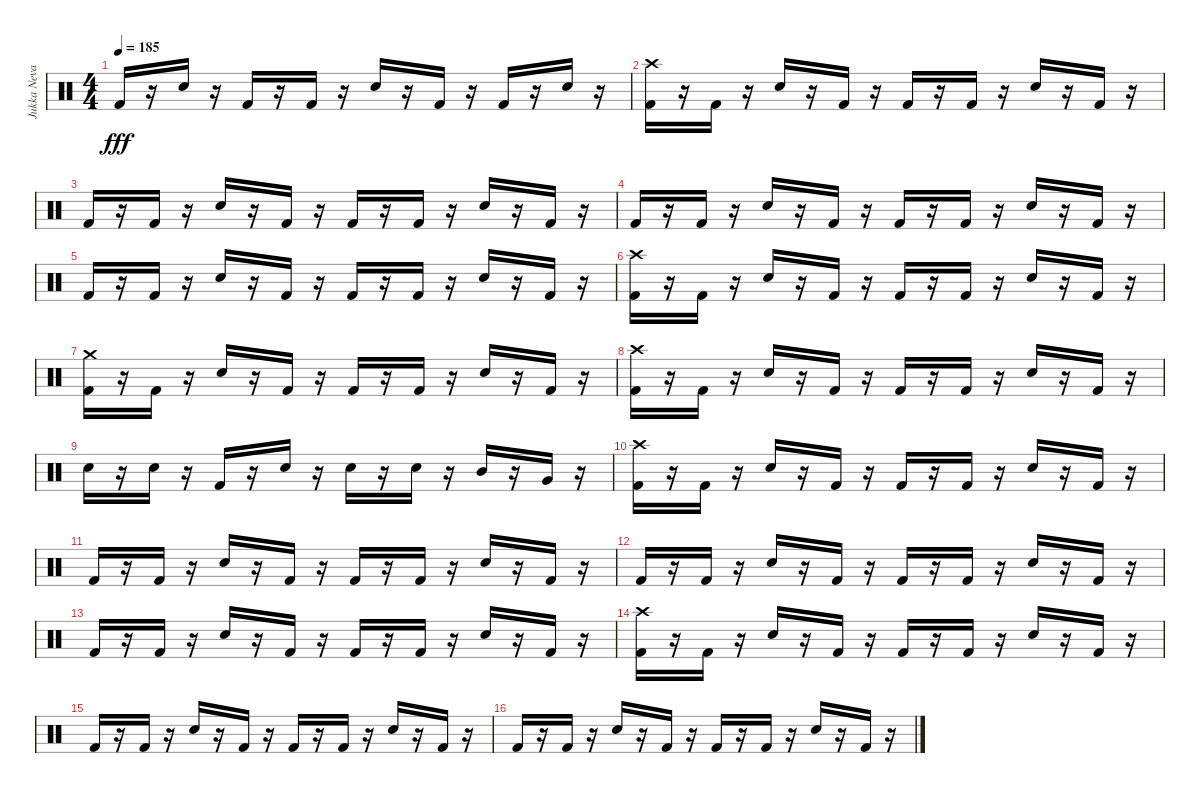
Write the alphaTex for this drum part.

\track ("Jukka Nevalinen" "Jukka Neva") {instrument percussion}
\staff {score}
\articulation defaults
\ts (4 4)
\tempo 185
\clef neutral
\ks c "Kick (hit) 2".16{dy fff}
r.16 "Snare (hit) 2".16{volume 9} r.16 "Kick (hit) 2".16 r.16 "Kick (hit) 2".16{volume 9} r.16 "Snare (hit) 2".16 r.16 "Kick (hit) 2".16{volume 8} r.16 "Kick (hit) 2".16 r.16 "Snare (hit) 2".16{volume 8} r.16 |
("Kick (hit) 2" "Crash high (hit)").16 r.16 "Kick (hit) 2".16{volume 8} r.16 "Snare (hit) 2".16 r.16 "Kick (hit) 2".16{volume 8} r.16 "Kick (hit) 2".16{volume 8} r.16 "Kick (hit) 2".16 r.16 "Snare (hit) 2".16{volume 8} r.16 "Kick (hit) 2".16 r.16 |
"Kick (hit) 2".16{volume 8} r.16 "Kick (hit) 2".16 r.16 "Snare (hit) 2".16{volume 8} r.16 "Kick (hit) 2".16 r.16 "Kick (hit) 2".16{volume 8} r.16 "Kick (hit) 2".16 r.16 "Snare (hit) 2".16{volume 7} r.16 "Kick (hit) 2".16 r.16 |
"Kick (hit) 2".16{volume 7} r.16 "Kick (hit) 2".16 r.16 "Snare (hit) 2".16{volume 7} r.16 "Kick (hit) 2".16 r.16 "Kick (hit) 2".16{volume 7} r.16 "Kick (hit) 2".16 r.16 "Snare (hit) 2".16{volume 7} r.16 "Kick (hit) 2".16 r.16 |
"Kick (hit) 2".16{volume 7} r.16 "Kick (hit) 2".16 r.16 "Snare (hit) 2".16{volume 7} r.16 "Kick (hit) 2".16 r.16 "Kick (hit) 2".16{volume 6} r.16 "Kick (hit) 2".16 r.16 "Snare (hit) 2".16{volume 6} r.16 "Kick (hit) 2".16 r.16 |
("Kick (hit) 2" "Crash high (hit)").16{volume 6} r.16 "Kick (hit) 2".16{volume 6} r.16 "Snare (hit) 2".16 r.16 "Kick (hit) 2".16{volume 6} r.16 "Kick (hit) 2".16 r.16 "Kick (hit) 2".16{volume 6} r.16 "Snare (hit) 2".16 r.16 "Kick (hit) 2".16{volume 6} r.16 |
("Kick (hit) 2" "Crash medium (hit)").16 r.16 "Kick (hit) 2".16{volume 6} r.16 "Snare (hit) 2".16 r.16 "Kick (hit) 2".16{volume 6} r.16 "Kick (hit) 2".16 r.16 "Kick (hit) 2".16{volume 5} r.16 "Snare (hit) 2".16 r.16 "Kick (hit) 2".16{volume 5} r.16 |
("Kick (hit) 2" "Crash high (hit)").16 r.16 "Kick (hit) 2".16{volume 5} r.16 "Snare (hit) 2".16 r.16 "Kick (hit) 2".16{volume 5} r.16 "Kick (hit) 2".16 r.16 "Kick (hit) 2".16{volume 5} r.16 "Snare (hit) 2".16 r.16 "Kick (hit) 2".16{volume 5} r.16 |
"Snare (hit) 2".16 r.16 "Snare (hit) 2".16{volume 5} r.16 "Kick (hit) 2".16 r.16 "Snare (hit) 2".16{volume 4} r.16 "Snare (hit) 2".16{volume 4} r.16 "Snare (hit) 2".16 r.16 "Mid Tom (hit)".16{volume 4} r.16 "Very Low Tom (hit)".16 r.16 |
("Kick (hit) 2" "Crash high (hit)").16{volume 4} r.16 "Kick (hit) 2".16 r.16 "Snare (hit) 2".16{volume 4} r.16 "Kick (hit) 2".16 r.16 "Kick (hit) 2".16{volume 4} r.16 "Kick (hit) 2".16 r.16 "Snare (hit) 2".16{volume 4} r.16 "Kick (hit) 2".16 r.16 |
"Kick (hit) 2".16{volume 4} r.16 "Kick (hit) 2".16 r.16 "Snare (hit) 2".16{volume 4} r.16 "Kick (hit) 2".16 r.16 "Kick (hit) 2".16{volume 3} r.16 "Kick (hit) 2".16 r.16 "Snare (hit) 2".16{volume 3} r.16 "Kick (hit) 2".16 r.16 |
"Kick (hit) 2".16{volume 3} r.16 "Kick (hit) 2".16 r.16 "Snare (hit) 2".16{volume 3} r.16 "Kick (hit) 2".16 r.16 "Kick (hit) 2".16{volume 3} r.16 "Kick (hit) 2".16 r.16 "Snare (hit) 2".16{volume 3} r.16 "Kick (hit) 2".16 r.16 |
"Kick (hit) 2".16{volume 3} r.16 "Kick (hit) 2".16{volume 2} r.16 "Snare (hit) 2".16 r.16 "Kick (hit) 2".16{volume 2} r.16 "Kick (hit) 2".16 r.16 "Kick (hit) 2".16{volume 2} r.16 "Snare (hit) 2".16 r.16 "Kick (hit) 2".16{volume 2} r.16 |
("Kick (hit) 2" "Crash high (hit)").16 r.16 "Kick (hit) 2".16{volume 2} r.16 "Snare (hit) 2".16 r.16 "Kick (hit) 2".16{volume 2} r.16 "Kick (hit) 2".16 r.16 "Kick (hit) 2".16{volume 2} r.16 "Snare (hit) 2".16 r.16 "Kick (hit) 2".16{volume 2} r.16 |
"Kick (hit) 2".16 r.16 "Kick (hit) 2".16{volume 2} r.16 "Snare (hit) 2".16 r.16 "Kick (hit) 2".16{volume 1} r.16 "Kick (hit) 2".16 r.16 "Kick (hit) 2".16{volume 1} r.16 "Snare (hit) 2".16 r.16 "Kick (hit) 2".16{volume 1} r.16 |
"Kick (hit) 2".16 r.16 "Kick (hit) 2".16{volume 1} r.16 "Snare (hit) 2".16 r.16 "Kick (hit) 2".16{volume 1} r.16 "Kick (hit) 2".16 r.16 "Kick (hit) 2".16{volume 1} r.16 "Snare (hit) 2".16{volume 1} r.16 "Kick (hit) 2".16 r.16
